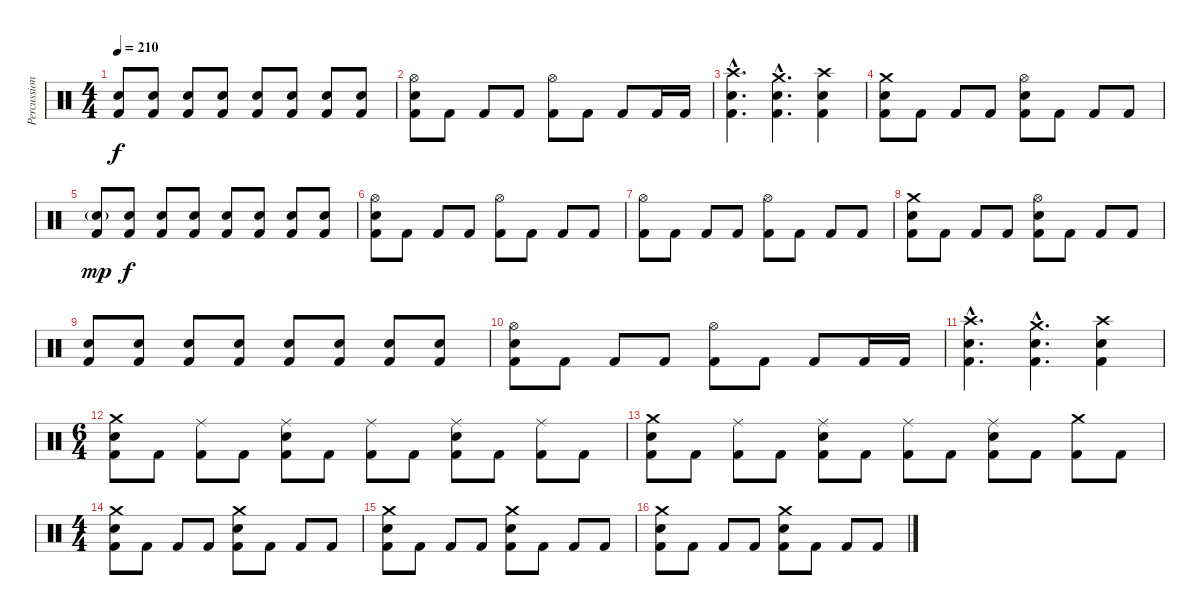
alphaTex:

\track ("Percussion" "Percussion") {instrument percussion}
\staff {score}
\articulation defaults
\ts (4 4)
\tempo 210
\clef neutral
\ks c
("Electric Snare (hit)" "Kick (hit) 2").8{dy f} ("Electric Snare (hit)" "Kick (hit) 2").8 ("Electric Snare (hit)" "Kick (hit) 2").8 ("Electric Snare (hit)" "Kick (hit) 2").8 ("Electric Snare (hit)" "Kick (hit) 2").8 ("Electric Snare (hit)" "Kick (hit) 2").8 ("Electric Snare (hit)" "Kick (hit) 2").8 ("Electric Snare (hit)" "Kick (hit) 2").8 |
("Hi-Hat (open)" "Electric Snare (hit)" "Kick (hit) 2").8 "Kick (hit) 2".8 "Kick (hit) 2".8 "Kick (hit) 2".8 ("Hi-Hat (open)" "Kick (hit) 2").8 "Kick (hit) 2".8 "Kick (hit) 2".8 "Kick (hit) 2".16 "Kick (hit) 2".16 |
("Crash high (hit)"{hac} "Electric Snare (hit)"{hac} "Kick (hit) 2"{hac}).4{d} ("Crash medium (hit)"{hac} "Electric Snare (hit)"{hac} "Kick (hit) 2"{hac}).4{d} ("Crash high (hit)" "Electric Snare (hit)" "Kick (hit) 2").4 |
("Crash medium (hit)" "Electric Snare (hit)" "Kick (hit) 2").8 "Kick (hit) 2".8 "Kick (hit) 2".8 "Kick (hit) 2".8 ("Hi-Hat (open)" "Electric Snare (hit)" "Kick (hit) 2").8 "Kick (hit) 2".8 "Kick (hit) 2".8 "Kick (hit) 2".8 |
("Electric Snare (hit)"{g} "Kick (hit) 2").8{dy mp} ("Electric Snare (hit)" "Kick (hit) 2").8{dy f} ("Electric Snare (hit)" "Kick (hit) 2").8 ("Electric Snare (hit)" "Kick (hit) 2").8 ("Electric Snare (hit)" "Kick (hit) 2").8 ("Electric Snare (hit)" "Kick (hit) 2").8 ("Electric Snare (hit)" "Kick (hit) 2").8 ("Electric Snare (hit)" "Kick (hit) 2").8 |
("Hi-Hat (open)" "Electric Snare (hit)" "Kick (hit) 2").8 "Kick (hit) 2".8 "Kick (hit) 2".8 "Kick (hit) 2".8 ("Hi-Hat (open)" "Kick (hit) 2").8 "Kick (hit) 2".8 "Kick (hit) 2".8 "Kick (hit) 2".8 |
("Hi-Hat (open)" "Kick (hit) 2").8 "Kick (hit) 2".8 "Kick (hit) 2".8 "Kick (hit) 2".8 ("Hi-Hat (open)" "Kick (hit) 2").8 "Kick (hit) 2".8 "Kick (hit) 2".8 "Kick (hit) 2".8 |
("Crash medium (hit)" "Electric Snare (hit)" "Kick (hit) 2").8 "Kick (hit) 2".8 "Kick (hit) 2".8 "Kick (hit) 2".8 ("Hi-Hat (open)" "Electric Snare (hit)" "Kick (hit) 2").8 "Kick (hit) 2".8 "Kick (hit) 2".8 "Kick (hit) 2".8 |
("Electric Snare (hit)" "Kick (hit) 2").8 ("Electric Snare (hit)" "Kick (hit) 2").8 ("Electric Snare (hit)" "Kick (hit) 2").8 ("Electric Snare (hit)" "Kick (hit) 2").8 ("Electric Snare (hit)" "Kick (hit) 2").8 ("Electric Snare (hit)" "Kick (hit) 2").8 ("Electric Snare (hit)" "Kick (hit) 2").8 ("Electric Snare (hit)" "Kick (hit) 2").8 |
("Hi-Hat (open)" "Electric Snare (hit)" "Kick (hit) 2").8 "Kick (hit) 2".8 "Kick (hit) 2".8 "Kick (hit) 2".8 ("Hi-Hat (open)" "Kick (hit) 2").8 "Kick (hit) 2".8 "Kick (hit) 2".8 "Kick (hit) 2".16 "Kick (hit) 2".16 |
("Crash high (hit)"{hac} "Electric Snare (hit)"{hac} "Kick (hit) 2"{hac}).4{d} ("Crash medium (hit)"{hac} "Electric Snare (hit)"{hac} "Kick (hit) 2"{hac}).4{d} ("Crash high (hit)" "Electric Snare (hit)" "Kick (hit) 2").4 |
\ts (6 4)
("Crash medium (hit)" "Electric Snare (hit)" "Kick (hit) 2").8 "Kick (hit) 2".8 ("Ride (middle)" "Kick (hit) 2").8 "Kick (hit) 2".8 ("Ride (middle)" "Electric Snare (hit)" "Kick (hit) 2").8 "Kick (hit) 2".8 ("Ride (middle)" "Kick (hit) 2").8 "Kick (hit) 2".8 ("Ride (middle)" "Electric Snare (hit)" "Kick (hit) 2").8 "Kick (hit) 2".8 ("Ride (middle)" "Kick (hit) 2").8 "Kick (hit) 2".8 |
("Crash medium (hit)" "Electric Snare (hit)" "Kick (hit) 2").8 "Kick (hit) 2".8 ("Ride (middle)" "Kick (hit) 2").8 "Kick (hit) 2".8 ("Ride (middle)" "Electric Snare (hit)" "Kick (hit) 2").8 "Kick (hit) 2".8 ("Ride (middle)" "Kick (hit) 2").8 "Kick (hit) 2".8 ("Ride (middle)" "Electric Snare (hit)" "Kick (hit) 2").8 "Kick (hit) 2".8 ("Crash medium (hit)" "Kick (hit) 2").8 "Kick (hit) 2".8 |
\ts (4 4)
("Crash medium (hit)" "Electric Snare (hit)" "Kick (hit) 2").8 "Kick (hit) 2".8 "Kick (hit) 2".8 "Kick (hit) 2".8 ("Crash medium (hit)" "Electric Snare (hit)" "Kick (hit) 2").8 "Kick (hit) 2".8 "Kick (hit) 2".8 "Kick (hit) 2".8 |
("Crash medium (hit)" "Electric Snare (hit)" "Kick (hit) 2").8 "Kick (hit) 2".8 "Kick (hit) 2".8 "Kick (hit) 2".8 ("Crash medium (hit)" "Electric Snare (hit)" "Kick (hit) 2").8 "Kick (hit) 2".8 "Kick (hit) 2".8 "Kick (hit) 2".8 |
("Crash medium (hit)" "Electric Snare (hit)" "Kick (hit) 2").8 "Kick (hit) 2".8 "Kick (hit) 2".8 "Kick (hit) 2".8 ("Crash medium (hit)" "Electric Snare (hit)" "Kick (hit) 2").8 "Kick (hit) 2".8 "Kick (hit) 2".8 "Kick (hit) 2".8
